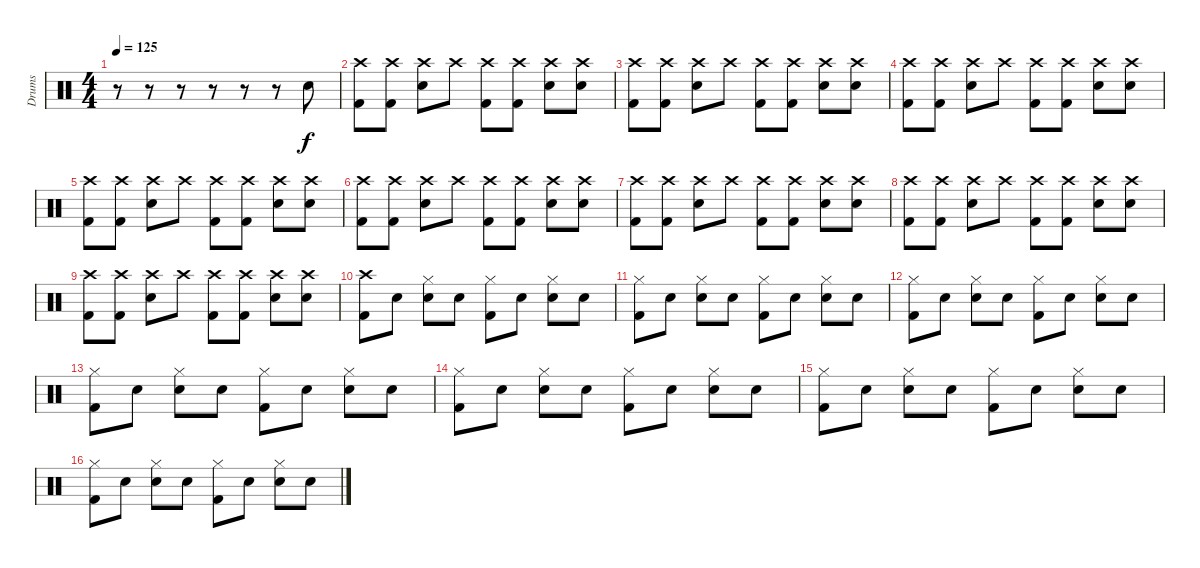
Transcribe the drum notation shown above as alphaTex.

\track ("Drums" "Drums") {instrument percussion}
\staff {score}
\articulation defaults
\ts (4 4)
\tempo 125
\clef neutral
\ks c
r.8{dy f} r.8 r.8 r.8 r.8 r.8 "Snare (hit) 2".8 |
("Kick (hit) 2" "Crash high (hit)").8 ("Kick (hit) 2" "Crash high (hit)").8 ("Snare (hit) 2" "Crash high (hit)").8 "Crash high (hit)".8 ("Kick (hit) 2" "Crash high (hit)").8 ("Kick (hit) 2" "Crash high (hit)").8 ("Snare (hit) 2" "Crash high (hit)").8 ("Snare (hit)" "Crash high (hit)").8 |
("Kick (hit) 2" "Crash high (hit)").8 ("Kick (hit) 2" "Crash high (hit)").8 ("Snare (hit) 2" "Crash high (hit)").8 "Crash high (hit)".8 ("Kick (hit) 2" "Crash high (hit)").8 ("Kick (hit) 2" "Crash high (hit)").8 ("Snare (hit) 2" "Crash high (hit)").8 ("Snare (hit)" "Crash high (hit)").8 |
("Kick (hit) 2" "Crash high (hit)").8 ("Kick (hit) 2" "Crash high (hit)").8 ("Snare (hit) 2" "Crash high (hit)").8 "Crash high (hit)".8 ("Kick (hit) 2" "Crash high (hit)").8 ("Kick (hit) 2" "Crash high (hit)").8 ("Snare (hit) 2" "Crash high (hit)").8 ("Snare (hit)" "Crash high (hit)").8 |
("Kick (hit) 2" "Crash high (hit)").8 ("Kick (hit) 2" "Crash high (hit)").8 ("Snare (hit) 2" "Crash high (hit)").8 "Crash high (hit)".8 ("Kick (hit) 2" "Crash high (hit)").8 ("Kick (hit) 2" "Crash high (hit)").8 ("Snare (hit) 2" "Crash high (hit)").8 ("Snare (hit)" "Crash high (hit)").8 |
("Kick (hit) 2" "Crash high (hit)").8 ("Kick (hit) 2" "Crash high (hit)").8 ("Snare (hit) 2" "Crash high (hit)").8 "Crash high (hit)".8 ("Kick (hit) 2" "Crash high (hit)").8 ("Kick (hit) 2" "Crash high (hit)").8 ("Snare (hit) 2" "Crash high (hit)").8 ("Snare (hit)" "Crash high (hit)").8 |
("Kick (hit) 2" "Crash high (hit)").8 ("Kick (hit) 2" "Crash high (hit)").8 ("Snare (hit) 2" "Crash high (hit)").8 "Crash high (hit)".8 ("Kick (hit) 2" "Crash high (hit)").8 ("Kick (hit) 2" "Crash high (hit)").8 ("Snare (hit) 2" "Crash high (hit)").8 ("Snare (hit)" "Crash high (hit)").8 |
("Kick (hit) 2" "Crash high (hit)").8 ("Kick (hit) 2" "Crash high (hit)").8 ("Snare (hit) 2" "Crash high (hit)").8 "Crash high (hit)".8 ("Kick (hit) 2" "Crash high (hit)").8 ("Kick (hit) 2" "Crash high (hit)").8 ("Snare (hit) 2" "Crash high (hit)").8 ("Snare (hit)" "Crash high (hit)").8 |
("Kick (hit) 2" "Crash high (hit)").8 ("Kick (hit) 2" "Crash high (hit)").8 ("Snare (hit) 2" "Crash high (hit)").8 "Crash high (hit)".8 ("Kick (hit) 2" "Crash high (hit)").8 ("Kick (hit) 2" "Crash high (hit)").8 ("Snare (hit) 2" "Crash high (hit)").8 ("Snare (hit)" "Crash high (hit)").8 |
("Kick (hit) 2" "Crash high (hit)").8 "Snare (hit)".8 ("Snare (hit) 2" "Hi-Hat (closed)").8 "Snare (hit)".8 ("Kick (hit) 2" "Hi-Hat (closed)").8 "Snare (hit)".8 ("Snare (hit) 2" "Hi-Hat (closed)").8 "Snare (hit)".8 |
("Kick (hit) 2" "Hi-Hat (closed)").8 "Snare (hit)".8 ("Snare (hit) 2" "Hi-Hat (closed)").8 "Snare (hit)".8 ("Kick (hit) 2" "Hi-Hat (closed)").8 "Snare (hit)".8 ("Snare (hit) 2" "Hi-Hat (closed)").8 "Snare (hit)".8 |
("Kick (hit) 2" "Hi-Hat (closed)").8 "Snare (hit)".8 ("Snare (hit) 2" "Hi-Hat (closed)").8 "Snare (hit)".8 ("Kick (hit) 2" "Hi-Hat (closed)").8 "Snare (hit)".8 ("Snare (hit) 2" "Hi-Hat (closed)").8 "Snare (hit)".8 |
("Kick (hit) 2" "Hi-Hat (closed)").8 "Snare (hit)".8 ("Snare (hit) 2" "Hi-Hat (closed)").8 "Snare (hit)".8 ("Kick (hit) 2" "Hi-Hat (closed)").8 "Snare (hit)".8 ("Snare (hit) 2" "Hi-Hat (closed)").8 "Snare (hit)".8 |
("Kick (hit) 2" "Hi-Hat (closed)").8 "Snare (hit)".8 ("Snare (hit) 2" "Hi-Hat (closed)").8 "Snare (hit)".8 ("Kick (hit) 2" "Hi-Hat (closed)").8 "Snare (hit)".8 ("Snare (hit) 2" "Hi-Hat (closed)").8 "Snare (hit)".8 |
("Kick (hit) 2" "Hi-Hat (closed)").8 "Snare (hit)".8 ("Snare (hit) 2" "Hi-Hat (closed)").8 "Snare (hit)".8 ("Kick (hit) 2" "Hi-Hat (closed)").8 "Snare (hit)".8 ("Snare (hit) 2" "Hi-Hat (closed)").8 "Snare (hit)".8 |
("Kick (hit) 2" "Hi-Hat (closed)").8 "Snare (hit)".8 ("Snare (hit) 2" "Hi-Hat (closed)").8 "Snare (hit)".8 ("Kick (hit) 2" "Hi-Hat (closed)").8 "Snare (hit)".8 ("Snare (hit) 2" "Hi-Hat (closed)").8 "Snare (hit)".8
